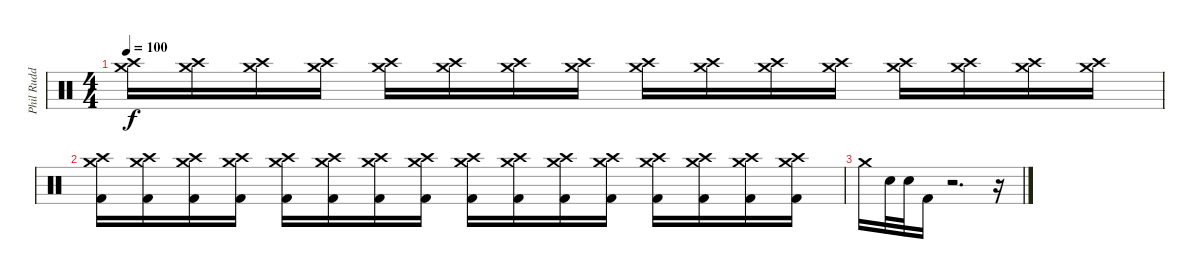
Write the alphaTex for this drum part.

\track ("Phil Rudd" "Phil Rudd") {instrument percussion}
\staff {score}
\articulation defaults
\ts (4 4)
\tempo 100
\clef neutral
\ks c
("Crash medium (hit)" "Crash high (hit)").16{dy f} ("Crash medium (hit)" "Crash high (hit)").16 ("Crash medium (hit)" "Crash high (hit)").16 ("Crash medium (hit)" "Crash high (hit)").16 ("Crash medium (hit)" "Crash high (hit)").16 ("Crash medium (hit)" "Crash high (hit)").16 ("Crash medium (hit)" "Crash high (hit)").16 ("Crash medium (hit)" "Crash high (hit)").16 ("Crash medium (hit)" "Crash high (hit)").16 ("Crash medium (hit)" "Crash high (hit)").16 ("Crash medium (hit)" "Crash high (hit)").16 ("Crash medium (hit)" "Crash high (hit)").16 ("Crash medium (hit)" "Crash high (hit)").16 ("Crash medium (hit)" "Crash high (hit)").16 ("Crash medium (hit)" "Crash high (hit)").16 ("Crash medium (hit)" "Crash high (hit)").16 |
("Crash medium (hit)" "Crash high (hit)" "Kick (hit) 2").16 ("Crash medium (hit)" "Crash high (hit)" "Kick (hit) 2").16 ("Crash medium (hit)" "Crash high (hit)" "Kick (hit) 2").16 ("Crash medium (hit)" "Crash high (hit)" "Kick (hit) 2").16 ("Crash medium (hit)" "Crash high (hit)" "Kick (hit) 2").16 ("Crash medium (hit)" "Crash high (hit)" "Kick (hit) 2").16 ("Crash medium (hit)" "Crash high (hit)" "Kick (hit) 2").16 ("Crash medium (hit)" "Crash high (hit)" "Kick (hit) 2").16 ("Crash medium (hit)" "Crash high (hit)" "Kick (hit) 2").16 ("Crash medium (hit)" "Crash high (hit)" "Kick (hit) 2").16 ("Crash medium (hit)" "Crash high (hit)" "Kick (hit) 2").16 ("Crash medium (hit)" "Crash high (hit)" "Kick (hit) 2").16 ("Crash medium (hit)" "Crash high (hit)" "Kick (hit) 2").16 ("Crash medium (hit)" "Crash high (hit)" "Kick (hit) 2").16 ("Crash medium (hit)" "Crash high (hit)" "Kick (hit) 2").16 ("Crash medium (hit)" "Crash high (hit)" "Kick (hit) 2").16 |
"Crash medium (hit)".16 "Snare (hit) 2".32 "Snare (hit) 2".32 "Kick (hit) 2".16 r.2{d} r.16
